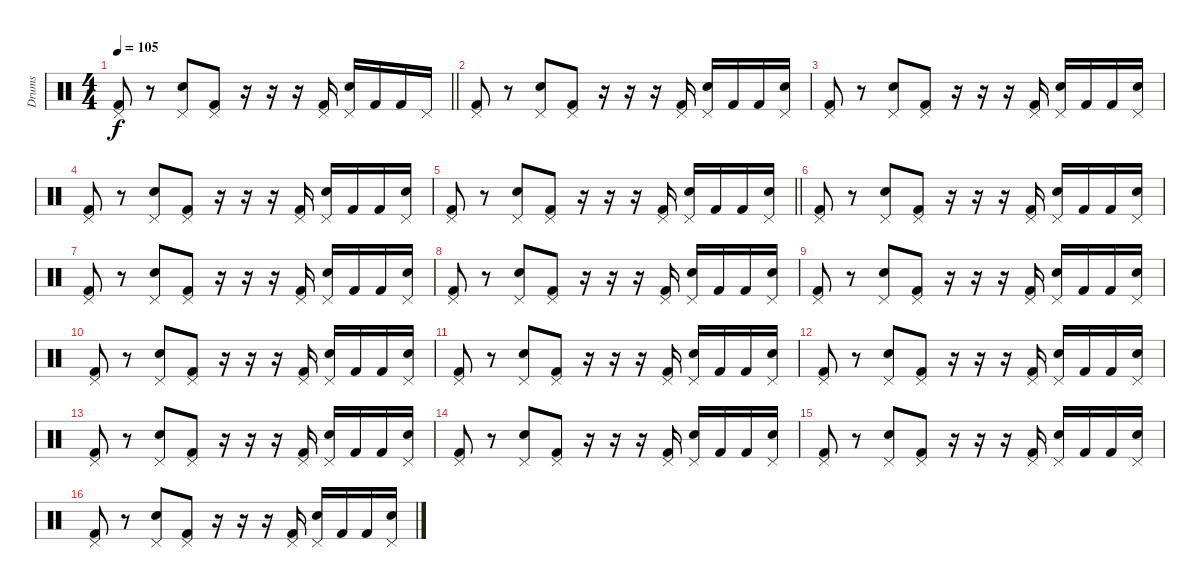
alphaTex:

\track ("Drums" "Drums") {instrument percussion}
\staff {score}
\articulation defaults
\ts (4 4)
\tempo 105
\clef neutral
\barLineRight lightlight
\ks c
("Pedal Hi-Hat (hit)" "Kick (hit) 2").8{dy f} r.8 ("Pedal Hi-Hat (hit)" "Snare (hit) 2").8 ("Pedal Hi-Hat (hit)" "Kick (hit) 2").8 r.16 r.16 r.16 ("Pedal Hi-Hat (hit)" "Kick (hit) 2").16 ("Pedal Hi-Hat (hit)" "Snare (hit) 2").16 "Kick (hit) 2".16 "Kick (hit) 2".16 "Pedal Hi-Hat (hit)".16 |
("Pedal Hi-Hat (hit)" "Kick (hit) 2").8 r.8 ("Pedal Hi-Hat (hit)" "Snare (hit) 2").8 ("Pedal Hi-Hat (hit)" "Kick (hit) 2").8 r.16 r.16 r.16 ("Pedal Hi-Hat (hit)" "Kick (hit) 2").16 ("Pedal Hi-Hat (hit)" "Snare (hit) 2").16 "Kick (hit) 2".16 "Kick (hit) 2".16 ("Pedal Hi-Hat (hit)" "Snare (hit) 2").16 |
("Pedal Hi-Hat (hit)" "Kick (hit) 2").8 r.8 ("Pedal Hi-Hat (hit)" "Snare (hit) 2").8 ("Pedal Hi-Hat (hit)" "Kick (hit) 2").8 r.16 r.16 r.16 ("Pedal Hi-Hat (hit)" "Kick (hit) 2").16 ("Pedal Hi-Hat (hit)" "Snare (hit) 2").16 "Kick (hit) 2".16 "Kick (hit) 2".16 ("Pedal Hi-Hat (hit)" "Snare (hit) 2").16 |
("Pedal Hi-Hat (hit)" "Kick (hit) 2").8 r.8 ("Pedal Hi-Hat (hit)" "Snare (hit) 2").8 ("Pedal Hi-Hat (hit)" "Kick (hit) 2").8 r.16 r.16 r.16 ("Pedal Hi-Hat (hit)" "Kick (hit) 2").16 ("Pedal Hi-Hat (hit)" "Snare (hit) 2").16 "Kick (hit) 2".16 "Kick (hit) 2".16 ("Pedal Hi-Hat (hit)" "Snare (hit) 2").16 |
\barLineRight lightlight
("Pedal Hi-Hat (hit)" "Kick (hit) 2").8 r.8 ("Pedal Hi-Hat (hit)" "Snare (hit) 2").8 ("Pedal Hi-Hat (hit)" "Kick (hit) 2").8 r.16 r.16 r.16 ("Pedal Hi-Hat (hit)" "Kick (hit) 2").16 ("Pedal Hi-Hat (hit)" "Snare (hit) 2").16 "Kick (hit) 2".16 "Kick (hit) 2".16 ("Pedal Hi-Hat (hit)" "Snare (hit) 2").16 |
("Pedal Hi-Hat (hit)" "Kick (hit) 2").8 r.8 ("Pedal Hi-Hat (hit)" "Snare (hit) 2").8 ("Pedal Hi-Hat (hit)" "Kick (hit) 2").8 r.16 r.16 r.16 ("Pedal Hi-Hat (hit)" "Kick (hit) 2").16 ("Pedal Hi-Hat (hit)" "Snare (hit) 2").16 "Kick (hit) 2".16 "Kick (hit) 2".16 ("Pedal Hi-Hat (hit)" "Snare (hit) 2").16 |
("Pedal Hi-Hat (hit)" "Kick (hit) 2").8 r.8 ("Pedal Hi-Hat (hit)" "Snare (hit) 2").8 ("Pedal Hi-Hat (hit)" "Kick (hit) 2").8 r.16 r.16 r.16 ("Pedal Hi-Hat (hit)" "Kick (hit) 2").16 ("Pedal Hi-Hat (hit)" "Snare (hit) 2").16 "Kick (hit) 2".16 "Kick (hit) 2".16 ("Pedal Hi-Hat (hit)" "Snare (hit) 2").16 |
("Pedal Hi-Hat (hit)" "Kick (hit) 2").8 r.8 ("Pedal Hi-Hat (hit)" "Snare (hit) 2").8 ("Pedal Hi-Hat (hit)" "Kick (hit) 2").8 r.16 r.16 r.16 ("Pedal Hi-Hat (hit)" "Kick (hit) 2").16 ("Pedal Hi-Hat (hit)" "Snare (hit) 2").16 "Kick (hit) 2".16 "Kick (hit) 2".16 ("Pedal Hi-Hat (hit)" "Snare (hit) 2").16 |
("Pedal Hi-Hat (hit)" "Kick (hit) 2").8 r.8 ("Pedal Hi-Hat (hit)" "Snare (hit) 2").8 ("Pedal Hi-Hat (hit)" "Kick (hit) 2").8 r.16 r.16 r.16 ("Pedal Hi-Hat (hit)" "Kick (hit) 2").16 ("Pedal Hi-Hat (hit)" "Snare (hit) 2").16 "Kick (hit) 2".16 "Kick (hit) 2".16 ("Pedal Hi-Hat (hit)" "Snare (hit) 2").16 |
("Pedal Hi-Hat (hit)" "Kick (hit) 2").8 r.8 ("Pedal Hi-Hat (hit)" "Snare (hit) 2").8 ("Pedal Hi-Hat (hit)" "Kick (hit) 2").8 r.16 r.16 r.16 ("Pedal Hi-Hat (hit)" "Kick (hit) 2").16 ("Pedal Hi-Hat (hit)" "Snare (hit) 2").16 "Kick (hit) 2".16 "Kick (hit) 2".16 ("Pedal Hi-Hat (hit)" "Snare (hit) 2").16 |
("Pedal Hi-Hat (hit)" "Kick (hit) 2").8 r.8 ("Pedal Hi-Hat (hit)" "Snare (hit) 2").8 ("Pedal Hi-Hat (hit)" "Kick (hit) 2").8 r.16 r.16 r.16 ("Pedal Hi-Hat (hit)" "Kick (hit) 2").16 ("Pedal Hi-Hat (hit)" "Snare (hit) 2").16 "Kick (hit) 2".16 "Kick (hit) 2".16 ("Pedal Hi-Hat (hit)" "Snare (hit) 2").16 |
("Pedal Hi-Hat (hit)" "Kick (hit) 2").8 r.8 ("Pedal Hi-Hat (hit)" "Snare (hit) 2").8 ("Pedal Hi-Hat (hit)" "Kick (hit) 2").8 r.16 r.16 r.16 ("Pedal Hi-Hat (hit)" "Kick (hit) 2").16 ("Pedal Hi-Hat (hit)" "Snare (hit) 2").16 "Kick (hit) 2".16 "Kick (hit) 2".16 ("Pedal Hi-Hat (hit)" "Snare (hit) 2").16 |
("Pedal Hi-Hat (hit)" "Kick (hit) 2").8 r.8 ("Pedal Hi-Hat (hit)" "Snare (hit) 2").8 ("Pedal Hi-Hat (hit)" "Kick (hit) 2").8 r.16 r.16 r.16 ("Pedal Hi-Hat (hit)" "Kick (hit) 2").16 ("Pedal Hi-Hat (hit)" "Snare (hit) 2").16 "Kick (hit) 2".16 "Kick (hit) 2".16 ("Pedal Hi-Hat (hit)" "Snare (hit) 2").16 |
("Pedal Hi-Hat (hit)" "Kick (hit) 2").8 r.8 ("Pedal Hi-Hat (hit)" "Snare (hit) 2").8 ("Pedal Hi-Hat (hit)" "Kick (hit) 2").8 r.16 r.16 r.16 ("Pedal Hi-Hat (hit)" "Kick (hit) 2").16 ("Pedal Hi-Hat (hit)" "Snare (hit) 2").16 "Kick (hit) 2".16 "Kick (hit) 2".16 ("Pedal Hi-Hat (hit)" "Snare (hit) 2").16 |
("Pedal Hi-Hat (hit)" "Kick (hit) 2").8 r.8 ("Pedal Hi-Hat (hit)" "Snare (hit) 2").8 ("Pedal Hi-Hat (hit)" "Kick (hit) 2").8 r.16 r.16 r.16 ("Pedal Hi-Hat (hit)" "Kick (hit) 2").16 ("Pedal Hi-Hat (hit)" "Snare (hit) 2").16 "Kick (hit) 2".16 "Kick (hit) 2".16 ("Pedal Hi-Hat (hit)" "Snare (hit) 2").16 |
("Pedal Hi-Hat (hit)" "Kick (hit) 2").8 r.8 ("Pedal Hi-Hat (hit)" "Snare (hit) 2").8 ("Pedal Hi-Hat (hit)" "Kick (hit) 2").8 r.16 r.16 r.16 ("Pedal Hi-Hat (hit)" "Kick (hit) 2").16 ("Pedal Hi-Hat (hit)" "Snare (hit) 2").16 "Kick (hit) 2".16 "Kick (hit) 2".16 ("Pedal Hi-Hat (hit)" "Snare (hit) 2").16
